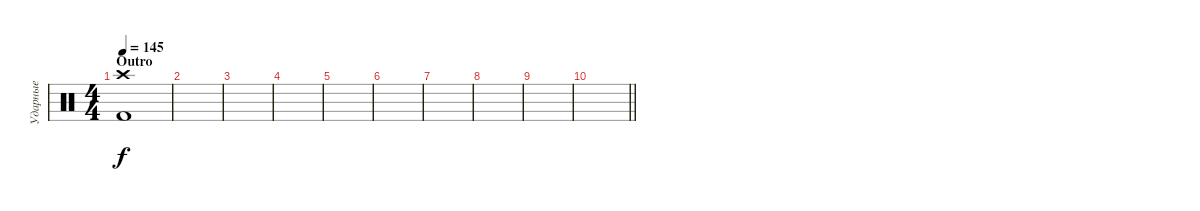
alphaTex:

\track ("Ударные" "Ударные") {instrument percussion}
\staff {score}
\articulation defaults
\ts (4 4)
\section ("" "Outro")
\tempo 145
\clef neutral
\ks c
("Crash high (hit)" "Kick (hit) 2").1{dy f} |
|
|
|
|
|
|
|
|
\barLineRight lightlight
